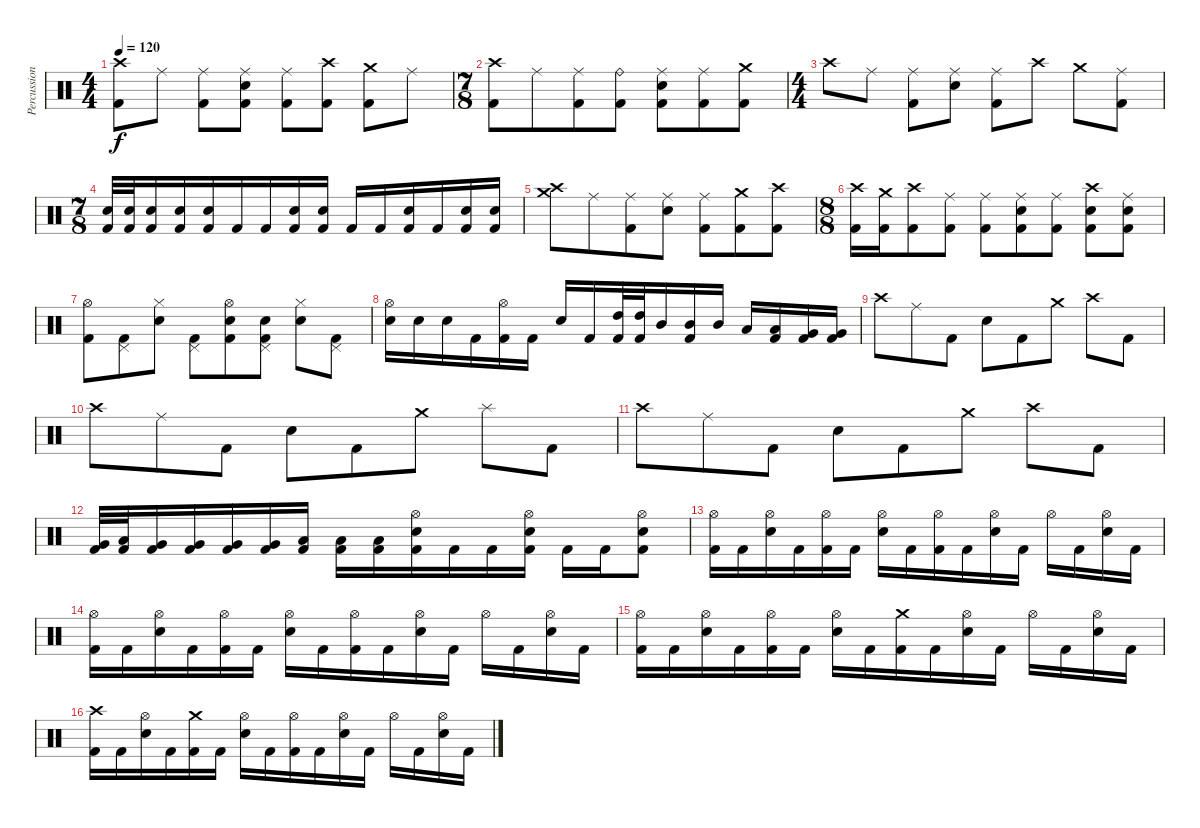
\track ("Percussion" "Percussion") {instrument percussion}
\staff {score}
\articulation defaults
\ts (4 4)
\tempo 120
\clef neutral
\ks c
("Crash high (hit)" "Kick (hit) 2").8{dy f} "Ride (middle)".8 ("Ride (middle)" "Kick (hit) 2").8 ("Ride (middle)" "Snare (hit) 2" "Kick (hit) 2").8 ("Ride (middle)" "Kick (hit) 2").8 ("Crash high (hit)" "Kick (hit) 2").8 ("Crash medium (hit)" "Kick (hit) 2").8 "Ride (middle)".8 |
\ts (7 8)
("Crash high (hit)" "Kick (hit) 2").8 "Ride (middle)".8 ("Ride (middle)" "Kick (hit) 2").8 ("Ride (bell)" "Kick (hit) 2").8 ("Ride (middle)" "Snare (hit) 2" "Kick (hit) 2").8 ("Ride (middle)" "Kick (hit) 2").8 ("Crash medium (hit)" "Kick (hit) 2").8 |
\ts (4 4)
"Crash high (hit)".8 "Ride (middle)".8 ("Ride (middle)" "Kick (hit) 2").8 ("Ride (middle)" "Snare (hit) 2").8 ("Ride (middle)" "Kick (hit) 2").8 "Crash high (hit)".8 "Crash medium (hit)".8 ("Ride (middle)" "Kick (hit) 2").8 |
\ts (7 8)
("Snare (hit) 2" "Kick (hit) 2").32 ("Snare (hit) 2" "Kick (hit) 2").32 ("Snare (hit) 2" "Kick (hit) 2").16 ("Snare (hit) 2" "Kick (hit) 2").16 ("Snare (hit) 2" "Kick (hit) 2").16 "Kick (hit) 2".16 "Kick (hit) 2".16 ("Snare (hit) 2" "Kick (hit) 2").16 ("Snare (hit) 2" "Kick (hit) 2").16 "Kick (hit) 2".16 "Kick (hit) 2".16 ("Snare (hit) 2" "Kick (hit) 2").16 "Kick (hit) 2".16 ("Snare (hit) 2" "Kick (hit) 2").16 ("Snare (hit) 2" "Kick (hit) 2").16 |
("Crash medium (hit)" "Crash high (hit)").8 "Ride (middle)".8 ("Ride (middle)" "Kick (hit) 2").8 ("Ride (middle)" "Snare (hit) 2").8 ("Ride (middle)" "Kick (hit) 2").8 ("Crash medium (hit)" "Kick (hit) 2").8 ("Crash high (hit)" "Kick (hit) 2").8 |
\ts (8 8)
("Crash high (hit)" "Kick (hit) 2").16 ("Crash medium (hit)" "Kick (hit) 2").16 ("Crash high (hit)" "Kick (hit) 2").8 ("Ride (middle)" "Kick (hit) 2").8 ("Ride (middle)" "Kick (hit) 2").8 ("Ride (middle)" "Snare (hit) 2" "Kick (hit) 2").8 ("Ride (middle)" "Kick (hit) 2").8 ("Crash high (hit)" "Snare (hit) 2" "Kick (hit) 2").8 ("Ride (middle)" "Snare (hit) 2" "Kick (hit) 2").8 |
("Hi-Hat (open)" "Kick (hit) 2").8 ("Pedal Hi-Hat (hit)" "Kick (hit) 2").8 ("Hi-Hat (closed)" "Snare (hit) 2").8 ("Pedal Hi-Hat (hit)" "Kick (hit) 2").8 ("Hi-Hat (open)" "Snare (hit) 2" "Kick (hit) 2").8 ("Pedal Hi-Hat (hit)" "Snare (hit) 2" "Kick (hit) 2").8 ("Hi-Hat (closed)" "Snare (hit) 2").8 ("Pedal Hi-Hat (hit)" "Kick (hit) 2").8 |
("Hi-Hat (open)" "Snare (hit) 2").16 "Snare (hit) 2".16 "Snare (hit) 2".16 "Kick (hit) 2".16 ("Hi-Hat (open)" "Kick (hit) 2").16 "Kick (hit) 2".16 "Snare (hit) 2".16 "Kick (hit) 2".16 ("High Tom (hit)" "Kick (hit) 2").32 ("High Tom (hit)" "Kick (hit) 2").32 "Mid Tom (hit)".16 ("Mid Tom (hit)" "Kick (hit) 2").16 "Mid Tom (hit)".16 "Low Tom (hit)".16 ("Low Tom (hit)" "Kick (hit) 2").16 ("Very Low Tom (hit)" "Kick (hit) 2").16 ("Very Low Tom (hit)" "Kick (hit) 2").16 |
"Crash high (hit)".8 "Ride (middle)".8 "Kick (hit) 2".8 "Snare (hit) 2".8 "Kick (hit) 2".8 "Crash medium (hit)".8 "Crash high (hit)".8 "Kick (hit) 2".8 |
"Crash high (hit)".8 "Ride (middle)".8 "Kick (hit) 2".8 "Snare (hit) 2".8 "Kick (hit) 2".8 "Crash medium (hit)".8 "Splash (hit)".8 "Kick (hit) 2".8 |
"Crash high (hit)".8 "Ride (middle)".8 "Kick (hit) 2".8 "Snare (hit) 2".8 "Kick (hit) 2".8 "Crash medium (hit)".8 "Crash high (hit)".8 "Kick (hit) 2".8 |
("Very Low Tom (hit)" "Kick (hit) 2").32 ("Low Tom (hit)" "Kick (hit) 2").32 ("Very Low Tom (hit)" "Kick (hit) 2").16 ("Very Low Tom (hit)" "Kick (hit) 2").16 ("Very Low Tom (hit)" "Kick (hit) 2").16 ("Very Low Tom (hit)" "Kick (hit) 2").16 ("Low Tom (hit)" "Kick (hit) 2").16 ("Low Tom (hit)" "Kick (hit) 2").16 ("Low Tom (hit)" "Kick (hit) 2").16 ("Hi-Hat (open)" "Snare (hit) 2" "Kick (hit) 2").16 "Kick (hit) 2".16 "Kick (hit) 2".16 ("Hi-Hat (open)" "Snare (hit) 2" "Kick (hit) 2").16 "Kick (hit) 2".16 "Kick (hit) 2".16 ("Hi-Hat (open)" "Snare (hit) 2" "Kick (hit) 2").8 |
("Hi-Hat (open)" "Kick (hit) 2").16 "Kick (hit) 2".16 ("Hi-Hat (open)" "Snare (hit) 2").16 "Kick (hit) 2".16 ("Hi-Hat (open)" "Kick (hit) 2").16 "Kick (hit) 2".16 ("Hi-Hat (open)" "Snare (hit) 2").16 "Kick (hit) 2".16 ("Hi-Hat (open)" "Kick (hit) 2").16 "Kick (hit) 2".16 ("Hi-Hat (open)" "Snare (hit) 2").16 "Kick (hit) 2".16 "Hi-Hat (open)".16 "Kick (hit) 2".16 ("Hi-Hat (open)" "Snare (hit) 2").16 "Kick (hit) 2".16 |
("Hi-Hat (open)" "Kick (hit) 2").16 "Kick (hit) 2".16 ("Hi-Hat (open)" "Snare (hit) 2").16 "Kick (hit) 2".16 ("Hi-Hat (open)" "Kick (hit) 2").16 "Kick (hit) 2".16 ("Hi-Hat (open)" "Snare (hit) 2").16 "Kick (hit) 2".16 ("Hi-Hat (open)" "Kick (hit) 2").16 "Kick (hit) 2".16 ("Hi-Hat (open)" "Snare (hit) 2").16 "Kick (hit) 2".16 "Hi-Hat (open)".16 "Kick (hit) 2".16 ("Hi-Hat (open)" "Snare (hit) 2").16 "Kick (hit) 2".16 |
("Hi-Hat (open)" "Kick (hit) 2").16 "Kick (hit) 2".16 ("Hi-Hat (open)" "Snare (hit) 2").16 "Kick (hit) 2".16 ("Hi-Hat (open)" "Kick (hit) 2").16 "Kick (hit) 2".16 ("Hi-Hat (open)" "Snare (hit) 2").16 "Kick (hit) 2".16 ("Crash medium (hit)" "Kick (hit) 2").16 "Kick (hit) 2".16 ("Hi-Hat (open)" "Snare (hit) 2").16 "Kick (hit) 2".16 "Hi-Hat (open)".16 "Kick (hit) 2".16 ("Hi-Hat (open)" "Snare (hit) 2").16 "Kick (hit) 2".16 |
("Crash high (hit)" "Kick (hit) 2").16 "Kick (hit) 2".16 ("Hi-Hat (open)" "Snare (hit) 2").16 "Kick (hit) 2".16 ("Crash medium (hit)" "Kick (hit) 2").16 "Kick (hit) 2".16 ("Hi-Hat (open)" "Snare (hit) 2").16 "Kick (hit) 2".16 ("Hi-Hat (open)" "Kick (hit) 2").16 "Kick (hit) 2".16 ("Hi-Hat (open)" "Snare (hit) 2").16 "Kick (hit) 2".16 "Hi-Hat (open)".16 "Kick (hit) 2".16 ("Hi-Hat (open)" "Snare (hit) 2").16 "Kick (hit) 2".16
